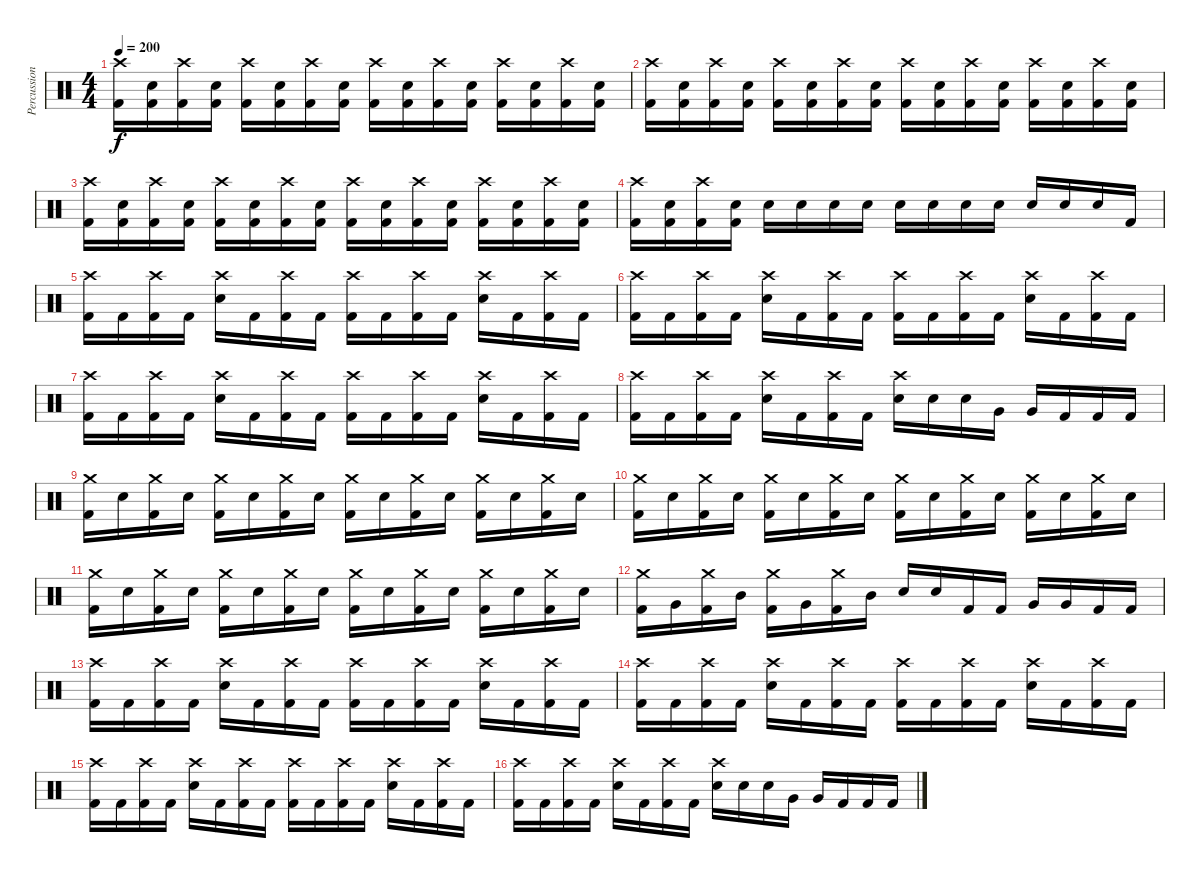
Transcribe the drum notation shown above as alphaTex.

\track ("Percussion" "Percussion") {instrument percussion}
\staff {score}
\articulation defaults
\ts (4 4)
\tempo 200
\clef neutral
\ks c
("Crash high (hit)" "Kick (hit) 2").16{dy f} ("Electric Snare (hit)" "Kick (hit) 2").16 ("Crash high (hit)" "Kick (hit) 2").16 ("Electric Snare (hit)" "Kick (hit) 2").16 ("Crash high (hit)" "Kick (hit) 2").16 ("Electric Snare (hit)" "Kick (hit) 2").16 ("Crash high (hit)" "Kick (hit) 2").16 ("Electric Snare (hit)" "Kick (hit) 2").16 ("Crash high (hit)" "Kick (hit) 2").16 ("Electric Snare (hit)" "Kick (hit) 2").16 ("Crash high (hit)" "Kick (hit) 2").16 ("Electric Snare (hit)" "Kick (hit) 2").16 ("Crash high (hit)" "Kick (hit) 2").16 ("Electric Snare (hit)" "Kick (hit) 2").16 ("Crash high (hit)" "Kick (hit) 2").16 ("Electric Snare (hit)" "Kick (hit) 2").16 |
("Crash high (hit)" "Kick (hit) 2").16 ("Electric Snare (hit)" "Kick (hit) 2").16 ("Crash high (hit)" "Kick (hit) 2").16 ("Electric Snare (hit)" "Kick (hit) 2").16 ("Crash high (hit)" "Kick (hit) 2").16 ("Electric Snare (hit)" "Kick (hit) 2").16 ("Crash high (hit)" "Kick (hit) 2").16 ("Electric Snare (hit)" "Kick (hit) 2").16 ("Crash high (hit)" "Kick (hit) 2").16 ("Electric Snare (hit)" "Kick (hit) 2").16 ("Crash high (hit)" "Kick (hit) 2").16 ("Electric Snare (hit)" "Kick (hit) 2").16 ("Crash high (hit)" "Kick (hit) 2").16 ("Electric Snare (hit)" "Kick (hit) 2").16 ("Crash high (hit)" "Kick (hit) 2").16 ("Electric Snare (hit)" "Kick (hit) 2").16 |
("Crash high (hit)" "Kick (hit) 2").16 ("Electric Snare (hit)" "Kick (hit) 2").16 ("Crash high (hit)" "Kick (hit) 2").16 ("Electric Snare (hit)" "Kick (hit) 2").16 ("Crash high (hit)" "Kick (hit) 2").16 ("Electric Snare (hit)" "Kick (hit) 2").16 ("Crash high (hit)" "Kick (hit) 2").16 ("Electric Snare (hit)" "Kick (hit) 2").16 ("Crash high (hit)" "Kick (hit) 2").16 ("Electric Snare (hit)" "Kick (hit) 2").16 ("Crash high (hit)" "Kick (hit) 2").16 ("Electric Snare (hit)" "Kick (hit) 2").16 ("Crash high (hit)" "Kick (hit) 2").16 ("Electric Snare (hit)" "Kick (hit) 2").16 ("Crash high (hit)" "Kick (hit) 2").16 ("Electric Snare (hit)" "Kick (hit) 2").16 |
("Crash high (hit)" "Kick (hit) 2").16 ("Electric Snare (hit)" "Kick (hit) 2").16 ("Crash high (hit)" "Kick (hit) 2").16 ("Electric Snare (hit)" "Kick (hit) 2").16 "Electric Snare (hit)".16 "Electric Snare (hit)".16 "Electric Snare (hit)".16 "Electric Snare (hit)".16 "Electric Snare (hit)".16 "Electric Snare (hit)".16 "Electric Snare (hit)".16 "Electric Snare (hit)".16 "Electric Snare (hit)".16 "Electric Snare (hit)".16 "Electric Snare (hit)".16 "Kick (hit) 2".16 |
("Crash high (hit)" "Kick (hit) 2").16 "Kick (hit) 2".16 ("Crash high (hit)" "Kick (hit) 2").16 "Kick (hit) 2".16 ("Crash high (hit)" "Electric Snare (hit)").16 "Kick (hit) 2".16 ("Crash high (hit)" "Kick (hit) 2").16 "Kick (hit) 2".16 ("Crash high (hit)" "Kick (hit) 2").16 "Kick (hit) 2".16 ("Crash high (hit)" "Kick (hit) 2").16 "Kick (hit) 2".16 ("Crash high (hit)" "Electric Snare (hit)").16 "Kick (hit) 2".16 ("Crash high (hit)" "Kick (hit) 2").16 "Kick (hit) 2".16 |
("Crash high (hit)" "Kick (hit) 2").16 "Kick (hit) 2".16 ("Crash high (hit)" "Kick (hit) 2").16 "Kick (hit) 2".16 ("Crash high (hit)" "Electric Snare (hit)").16 "Kick (hit) 2".16 ("Crash high (hit)" "Kick (hit) 2").16 "Kick (hit) 2".16 ("Crash high (hit)" "Kick (hit) 2").16 "Kick (hit) 2".16 ("Crash high (hit)" "Kick (hit) 2").16 "Kick (hit) 2".16 ("Crash high (hit)" "Electric Snare (hit)").16 "Kick (hit) 2".16 ("Crash high (hit)" "Kick (hit) 2").16 "Kick (hit) 2".16 |
("Crash high (hit)" "Kick (hit) 2").16 "Kick (hit) 2".16 ("Crash high (hit)" "Kick (hit) 2").16 "Kick (hit) 2".16 ("Crash high (hit)" "Electric Snare (hit)").16 "Kick (hit) 2".16 ("Crash high (hit)" "Kick (hit) 2").16 "Kick (hit) 2".16 ("Crash high (hit)" "Kick (hit) 2").16 "Kick (hit) 2".16 ("Crash high (hit)" "Kick (hit) 2").16 "Kick (hit) 2".16 ("Crash high (hit)" "Electric Snare (hit)").16 "Kick (hit) 2".16 ("Crash high (hit)" "Kick (hit) 2").16 "Kick (hit) 2".16 |
("Crash high (hit)" "Kick (hit) 2").16 "Kick (hit) 2".16 ("Crash high (hit)" "Kick (hit) 2").16 "Kick (hit) 2".16 ("Crash high (hit)" "Electric Snare (hit)").16 "Kick (hit) 2".16 ("Crash high (hit)" "Kick (hit) 2").16 "Kick (hit) 2".16 ("Crash high (hit)" "Electric Snare (hit)").16 "Electric Snare (hit)".16 "Electric Snare (hit)".16 "Very Low Tom (hit)".16 "Very Low Tom (hit)".16 "Kick (hit) 2".16 "Kick (hit) 2".16 "Kick (hit) 2".16 |
("Crash medium (hit)" "Kick (hit) 2").16 "Snare (hit) 2".16 ("Crash medium (hit)" "Kick (hit) 2").16 "Snare (hit) 2".16 ("Crash medium (hit)" "Kick (hit) 2").16 "Snare (hit) 2".16 ("Crash medium (hit)" "Kick (hit) 2").16 "Snare (hit) 2".16 ("Crash medium (hit)" "Kick (hit) 2").16 "Snare (hit) 2".16 ("Crash medium (hit)" "Kick (hit) 2").16 "Snare (hit) 2".16 ("Crash medium (hit)" "Kick (hit) 2").16 "Snare (hit) 2".16 ("Crash medium (hit)" "Kick (hit) 2").16 "Snare (hit) 2".16 |
("Crash medium (hit)" "Kick (hit) 2").16 "Snare (hit) 2".16 ("Crash medium (hit)" "Kick (hit) 2").16 "Snare (hit) 2".16 ("Crash medium (hit)" "Kick (hit) 2").16 "Snare (hit) 2".16 ("Crash medium (hit)" "Kick (hit) 2").16 "Snare (hit) 2".16 ("Crash medium (hit)" "Kick (hit) 2").16 "Snare (hit) 2".16 ("Crash medium (hit)" "Kick (hit) 2").16 "Snare (hit) 2".16 ("Crash medium (hit)" "Kick (hit) 2").16 "Snare (hit) 2".16 ("Crash medium (hit)" "Kick (hit) 2").16 "Snare (hit) 2".16 |
("Crash medium (hit)" "Kick (hit) 2").16 "Snare (hit) 2".16 ("Crash medium (hit)" "Kick (hit) 2").16 "Snare (hit) 2".16 ("Crash medium (hit)" "Kick (hit) 2").16 "Snare (hit) 2".16 ("Crash medium (hit)" "Kick (hit) 2").16 "Snare (hit) 2".16 ("Crash medium (hit)" "Kick (hit) 2").16 "Snare (hit) 2".16 ("Crash medium (hit)" "Kick (hit) 2").16 "Snare (hit) 2".16 ("Crash medium (hit)" "Kick (hit) 2").16 "Snare (hit) 2".16 ("Crash medium (hit)" "Kick (hit) 2").16 "Snare (hit) 2".16 |
("Crash medium (hit)" "Kick (hit) 2").16 "Very Low Tom (hit)".16 ("Crash medium (hit)" "Kick (hit) 2").16 "Mid Tom (hit)".16 ("Crash medium (hit)" "Kick (hit) 2").16 "Very Low Tom (hit)".16 ("Crash medium (hit)" "Kick (hit) 2").16 "Mid Tom (hit)".16 "Electric Snare (hit)".16 "Electric Snare (hit)".16 "Kick (hit) 2".16 "Kick (hit) 2".16 "Very Low Tom (hit)".16 "Very Low Tom (hit)".16 "Kick (hit) 2".16 "Kick (hit) 2".16 |
("Crash high (hit)" "Kick (hit) 2").16 "Kick (hit) 2".16 ("Crash high (hit)" "Kick (hit) 2").16 "Kick (hit) 2".16 ("Crash high (hit)" "Electric Snare (hit)").16 "Kick (hit) 2".16 ("Crash high (hit)" "Kick (hit) 2").16 "Kick (hit) 2".16 ("Crash high (hit)" "Kick (hit) 2").16 "Kick (hit) 2".16 ("Crash high (hit)" "Kick (hit) 2").16 "Kick (hit) 2".16 ("Crash high (hit)" "Electric Snare (hit)").16 "Kick (hit) 2".16 ("Crash high (hit)" "Kick (hit) 2").16 "Kick (hit) 2".16 |
("Crash high (hit)" "Kick (hit) 2").16 "Kick (hit) 2".16 ("Crash high (hit)" "Kick (hit) 2").16 "Kick (hit) 2".16 ("Crash high (hit)" "Electric Snare (hit)").16 "Kick (hit) 2".16 ("Crash high (hit)" "Kick (hit) 2").16 "Kick (hit) 2".16 ("Crash high (hit)" "Kick (hit) 2").16 "Kick (hit) 2".16 ("Crash high (hit)" "Kick (hit) 2").16 "Kick (hit) 2".16 ("Crash high (hit)" "Electric Snare (hit)").16 "Kick (hit) 2".16 ("Crash high (hit)" "Kick (hit) 2").16 "Kick (hit) 2".16 |
("Crash high (hit)" "Kick (hit) 2").16 "Kick (hit) 2".16 ("Crash high (hit)" "Kick (hit) 2").16 "Kick (hit) 2".16 ("Crash high (hit)" "Electric Snare (hit)").16 "Kick (hit) 2".16 ("Crash high (hit)" "Kick (hit) 2").16 "Kick (hit) 2".16 ("Crash high (hit)" "Kick (hit) 2").16 "Kick (hit) 2".16 ("Crash high (hit)" "Kick (hit) 2").16 "Kick (hit) 2".16 ("Crash high (hit)" "Electric Snare (hit)").16 "Kick (hit) 2".16 ("Crash high (hit)" "Kick (hit) 2").16 "Kick (hit) 2".16 |
("Crash high (hit)" "Kick (hit) 2").16 "Kick (hit) 2".16 ("Crash high (hit)" "Kick (hit) 2").16 "Kick (hit) 2".16 ("Crash high (hit)" "Electric Snare (hit)").16 "Kick (hit) 2".16 ("Crash high (hit)" "Kick (hit) 2").16 "Kick (hit) 2".16 ("Crash high (hit)" "Electric Snare (hit)").16 "Electric Snare (hit)".16 "Electric Snare (hit)".16 "Very Low Tom (hit)".16 "Very Low Tom (hit)".16 "Kick (hit) 2".16 "Kick (hit) 2".16 "Kick (hit) 2".16
